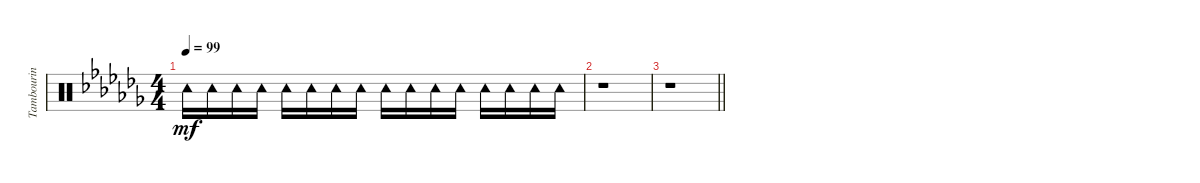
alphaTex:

\track ("Tambourin" "Tambourin") {instrument percussion}
\staff {score}
\articulation defaults
\ts (4 4)
\tempo 99
\clef neutral
\ks cb "Tambourine (hit)".16{dy mf} "Tambourine (hit)".16 "Tambourine (hit)".16 "Tambourine (hit)".16 "Tambourine (hit)".16 "Tambourine (hit)".16 "Tambourine (hit)".16 "Tambourine (hit)".16 "Tambourine (hit)".16 "Tambourine (hit)".16 "Tambourine (hit)".16 "Tambourine (hit)".16 "Tambourine (hit)".16 "Tambourine (hit)".16 "Tambourine (hit)".16 "Tambourine (hit)".16
|
r.1 |
\barLineRight lightlight
r.1{volume 8}
